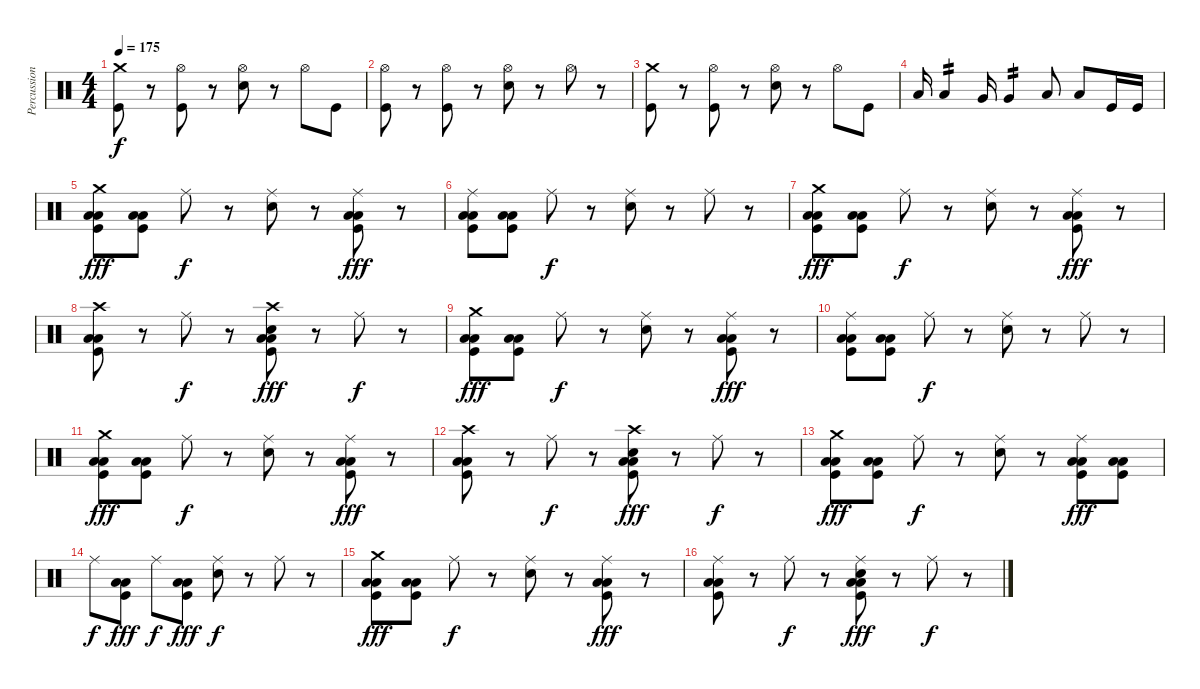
\track ("Percussions" "Percussion") {instrument percussion}
\staff {score}
\articulation defaults
\ts (4 4)
\tempo 175
\clef neutral
\ks c
("Crash medium (hit)" "Kick (hit)").8{dy f} r.8 ("Hi-Hat (open)" "Kick (hit)").8 r.8 ("Hi-Hat (open)" "Snare (hit) 2").8 r.8 "Hi-Hat (open)".8 "Kick (hit)".8 |
("Hi-Hat (open)" "Kick (hit)").8 r.8 ("Hi-Hat (open)" "Kick (hit)").8 r.8 ("Hi-Hat (open)" "Snare (hit) 2").8 r.8 "Hi-Hat (open)".8 r.8 |
("Crash medium (hit)" "Kick (hit)").8 r.8 ("Hi-Hat (open)" "Kick (hit)").8 r.8 ("Hi-Hat (open)" "Snare (hit) 2").8 r.8 "Hi-Hat (open)".8 "Kick (hit)".8 |
"Low Tom (hit)".16 "Low Tom (hit)".4{tp 2} "Very Low Tom (hit)".16 "Very Low Tom (hit)".4{tp 2} "Low Tom (hit)".8 "Low Tom (hit)".8 "Kick (hit)".16 "Kick (hit)".16 |
("Crash medium (hit)" "Low Tom (hit)" "Low Floor Tom (hit)" "Kick (hit)").8{dy fff} ("Low Tom (hit)" "Low Floor Tom (hit)" "Kick (hit)").8 "Ride (middle)".8{dy f} r.8 ("Ride (middle)" "Snare (hit) 2").8 r.8 ("Ride (middle)" "Low Tom (hit)" "Low Floor Tom (hit)" "Kick (hit)").8{dy fff} r.8 |
("Ride (middle)" "Low Tom (hit)" "Low Floor Tom (hit)" "Kick (hit)").8 ("Low Tom (hit)" "Low Floor Tom (hit)" "Kick (hit)").8 "Ride (middle)".8{dy f} r.8 ("Ride (middle)" "Snare (hit) 2").8 r.8 "Ride (middle)".8 r.8 |
("Crash medium (hit)" "Low Tom (hit)" "Low Floor Tom (hit)" "Kick (hit)").8{dy fff} ("Low Tom (hit)" "Low Floor Tom (hit)" "Kick (hit)").8 "Ride (middle)".8{dy f} r.8 ("Ride (middle)" "Snare (hit) 2").8 r.8 ("Ride (middle)" "Low Tom (hit)" "Low Floor Tom (hit)" "Kick (hit)").8{dy fff} r.8 |
("Crash high (hit)" "Low Tom (hit)" "Low Floor Tom (hit)" "Kick (hit)").8 r.8 "Ride (middle)".8{dy f} r.8 ("Crash high (hit)" "Snare (hit) 2" "Low Tom (hit)" "Low Floor Tom (hit)" "Kick (hit)").8{dy fff} r.8 "Ride (middle)".8{dy f} r.8 |
("Crash medium (hit)" "Low Tom (hit)" "Low Floor Tom (hit)" "Kick (hit)").8{dy fff} ("Low Tom (hit)" "Low Floor Tom (hit)" "Kick (hit)").8 "Ride (middle)".8{dy f} r.8 ("Ride (middle)" "Snare (hit) 2").8 r.8 ("Ride (middle)" "Low Tom (hit)" "Low Floor Tom (hit)" "Kick (hit)").8{dy fff} r.8 |
("Ride (middle)" "Low Tom (hit)" "Low Floor Tom (hit)" "Kick (hit)").8 ("Low Tom (hit)" "Low Floor Tom (hit)" "Kick (hit)").8 "Ride (middle)".8{dy f} r.8 ("Ride (middle)" "Snare (hit) 2").8 r.8 "Ride (middle)".8 r.8 |
("Crash medium (hit)" "Low Tom (hit)" "Low Floor Tom (hit)" "Kick (hit)").8{dy fff} ("Low Tom (hit)" "Low Floor Tom (hit)" "Kick (hit)").8 "Ride (middle)".8{dy f} r.8 ("Ride (middle)" "Snare (hit) 2").8 r.8 ("Ride (middle)" "Low Tom (hit)" "Low Floor Tom (hit)" "Kick (hit)").8{dy fff} r.8 |
("Crash high (hit)" "Low Tom (hit)" "Low Floor Tom (hit)" "Kick (hit)").8 r.8 "Ride (middle)".8{dy f} r.8 ("Crash high (hit)" "Snare (hit) 2" "Low Tom (hit)" "Low Floor Tom (hit)" "Kick (hit)").8{dy fff} r.8 "Ride (middle)".8{dy f} r.8 |
("Crash medium (hit)" "Low Tom (hit)" "Low Floor Tom (hit)" "Kick (hit)").8{dy fff} ("Low Tom (hit)" "Low Floor Tom (hit)" "Kick (hit)").8 "Ride (middle)".8{dy f} r.8 ("Ride (middle)" "Snare (hit) 2").8 r.8 ("Ride (middle)" "Low Tom (hit)" "Low Floor Tom (hit)" "Kick (hit)").8{dy fff} ("Low Tom (hit)" "Low Floor Tom (hit)" "Kick (hit)").8 |
"Ride (middle)".8{dy f} ("Low Tom (hit)" "Low Floor Tom (hit)" "Kick (hit)").8{dy fff} "Ride (middle)".8{dy f} ("Low Tom (hit)" "Kick (hit)" "Low Floor Tom (hit)").8{dy fff} ("Ride (middle)" "Snare (hit) 2").8{dy f} r.8 "Ride (middle)".8 r.8 |
("Crash medium (hit)" "Low Tom (hit)" "Low Floor Tom (hit)" "Kick (hit)").8{dy fff} ("Low Tom (hit)" "Low Floor Tom (hit)" "Kick (hit)").8 "Ride (middle)".8{dy f} r.8 ("Ride (middle)" "Snare (hit) 2").8 r.8 ("Ride (middle)" "Low Tom (hit)" "Low Floor Tom (hit)" "Kick (hit)").8{dy fff} r.8 |
("Ride (middle)" "Low Tom (hit)" "Low Floor Tom (hit)" "Kick (hit)").8 r.8 "Ride (middle)".8{dy f} r.8 ("Ride (middle)" "Snare (hit) 2" "Low Tom (hit)" "Low Floor Tom (hit)" "Kick (hit)").8{dy fff} r.8 "Ride (middle)".8{dy f} r.8
